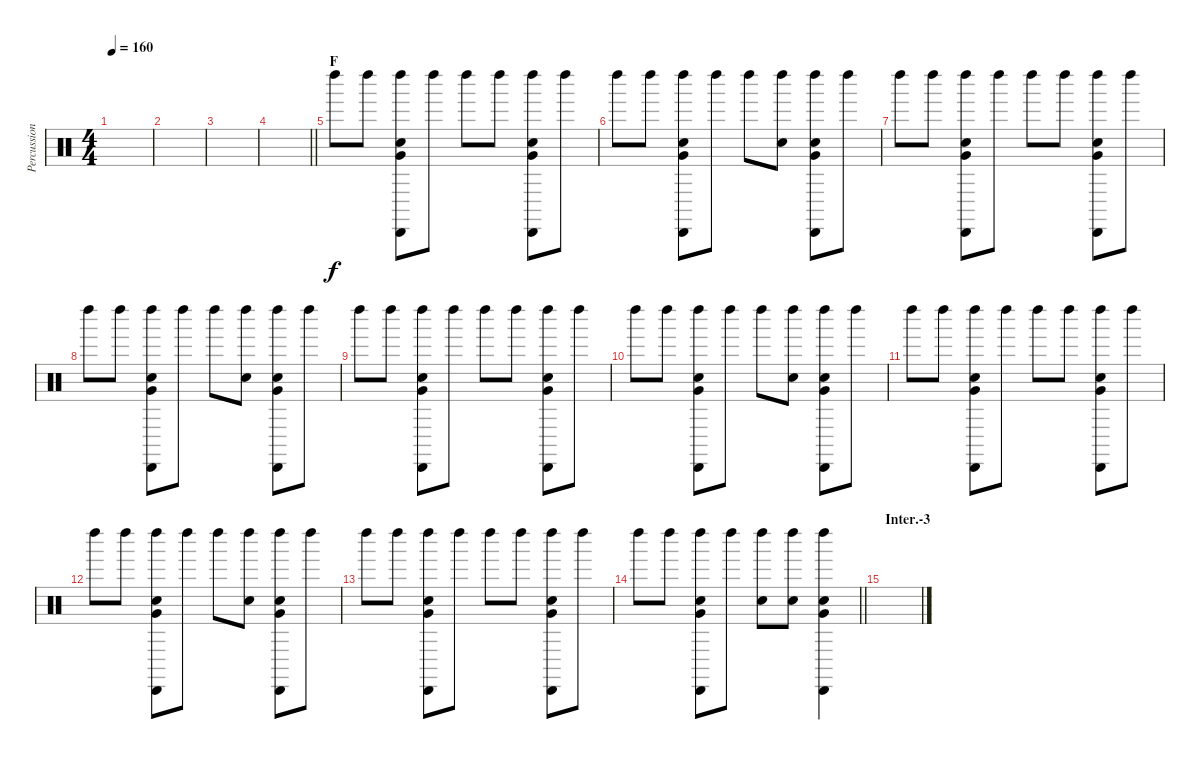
\track ("Percussion A (Tainaka Ritsu)" "Percussion") {instrument percussion}
\staff {score}
\articulation defaults
\ts (4 4)
\tempo 160
\clef neutral
\ks c
|
|
|
\barLineRight lightlight
|
\section ("" "F")
"Left Maraca (hit)".8 "Left Maraca (hit)".8 ("Left Maraca (hit)" "Cabasa (hit)" "Very Low Tom (hit)" "Hand Clap (hit)").8 "Left Maraca (hit)".8 "Left Maraca (hit)".8 "Left Maraca (hit)".8 ("Left Maraca (hit)" "Cabasa (hit)" "Very Low Tom (hit)" "Hand Clap (hit)").8 "Left Maraca (hit)".8 |
"Left Maraca (hit)".8 "Left Maraca (hit)".8 ("Left Maraca (hit)" "Cabasa (hit)" "Very Low Tom (hit)" "Hand Clap (hit)").8 "Left Maraca (hit)".8 "Left Maraca (hit)".8 ("Left Maraca (hit)" "Hand Clap (hit)").8 ("Left Maraca (hit)" "Cabasa (hit)" "Very Low Tom (hit)" "Hand Clap (hit)").8 "Left Maraca (hit)".8 |
"Left Maraca (hit)".8 "Left Maraca (hit)".8 ("Left Maraca (hit)" "Cabasa (hit)" "Very Low Tom (hit)" "Hand Clap (hit)").8 "Left Maraca (hit)".8 "Left Maraca (hit)".8 "Left Maraca (hit)".8 ("Left Maraca (hit)" "Cabasa (hit)" "Very Low Tom (hit)" "Hand Clap (hit)").8 "Left Maraca (hit)".8 |
"Left Maraca (hit)".8 "Left Maraca (hit)".8 ("Left Maraca (hit)" "Cabasa (hit)" "Very Low Tom (hit)" "Hand Clap (hit)").8 "Left Maraca (hit)".8 "Left Maraca (hit)".8 ("Left Maraca (hit)" "Hand Clap (hit)").8 ("Left Maraca (hit)" "Cabasa (hit)" "Very Low Tom (hit)" "Hand Clap (hit)").8 "Left Maraca (hit)".8 |
"Left Maraca (hit)".8 "Left Maraca (hit)".8 ("Left Maraca (hit)" "Cabasa (hit)" "Very Low Tom (hit)" "Hand Clap (hit)").8 "Left Maraca (hit)".8 "Left Maraca (hit)".8 "Left Maraca (hit)".8 ("Left Maraca (hit)" "Cabasa (hit)" "Very Low Tom (hit)" "Hand Clap (hit)").8 "Left Maraca (hit)".8 |
"Left Maraca (hit)".8 "Left Maraca (hit)".8 ("Left Maraca (hit)" "Cabasa (hit)" "Very Low Tom (hit)" "Hand Clap (hit)").8 "Left Maraca (hit)".8 "Left Maraca (hit)".8 ("Left Maraca (hit)" "Hand Clap (hit)").8 ("Left Maraca (hit)" "Cabasa (hit)" "Very Low Tom (hit)" "Hand Clap (hit)").8 "Left Maraca (hit)".8 |
"Left Maraca (hit)".8 "Left Maraca (hit)".8 ("Left Maraca (hit)" "Cabasa (hit)" "Very Low Tom (hit)" "Hand Clap (hit)").8 "Left Maraca (hit)".8 "Left Maraca (hit)".8 "Left Maraca (hit)".8 ("Left Maraca (hit)" "Cabasa (hit)" "Very Low Tom (hit)" "Hand Clap (hit)").8 "Left Maraca (hit)".8 |
"Left Maraca (hit)".8 "Left Maraca (hit)".8 ("Left Maraca (hit)" "Cabasa (hit)" "Very Low Tom (hit)" "Hand Clap (hit)").8 "Left Maraca (hit)".8 "Left Maraca (hit)".8 ("Left Maraca (hit)" "Hand Clap (hit)").8 ("Left Maraca (hit)" "Cabasa (hit)" "Very Low Tom (hit)" "Hand Clap (hit)").8 "Left Maraca (hit)".8 |
"Left Maraca (hit)".8 "Left Maraca (hit)".8 ("Left Maraca (hit)" "Cabasa (hit)" "Very Low Tom (hit)" "Hand Clap (hit)").8 "Left Maraca (hit)".8 "Left Maraca (hit)".8 "Left Maraca (hit)".8 ("Left Maraca (hit)" "Cabasa (hit)" "Very Low Tom (hit)" "Hand Clap (hit)").8 "Left Maraca (hit)".8 |
\barLineRight lightlight "Left Maraca (hit)".8 "Left Maraca (hit)".8
("Left Maraca (hit)" "Cabasa (hit)" "Very Low Tom (hit)" "Hand Clap (hit)").8 "Left Maraca (hit)".8 ("Left Maraca (hit)" "Hand Clap (hit)").8 ("Left Maraca (hit)" "Hand Clap (hit)").8 ("Left Maraca (hit)" "Cabasa (hit)" "Very Low Tom (hit)" "Hand Clap (hit)").4 |
\section ("" "Inter.-3")
